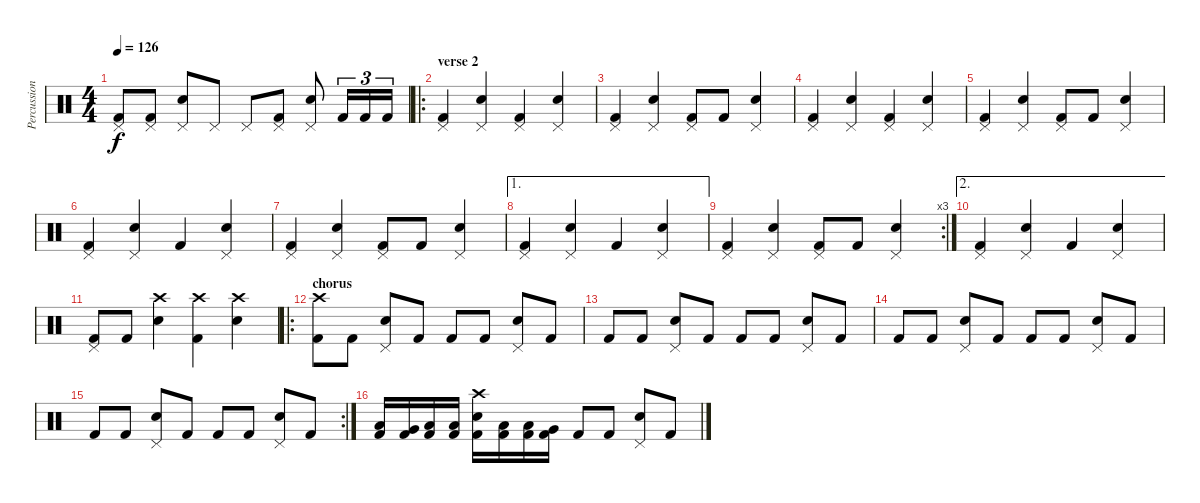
\track ("Percussion" "Percussion") {instrument percussion}
\staff {score}
\articulation defaults
\ts (4 4)
\tempo 126
\clef neutral
\ks c
("Pedal Hi-Hat (hit)" "Kick (hit) 2").8{dy f} ("Pedal Hi-Hat (hit)" "Kick (hit) 2").8 ("Pedal Hi-Hat (hit)" "Electric Snare (hit)").8 "Pedal Hi-Hat (hit)".8 "Pedal Hi-Hat (hit)".8 ("Pedal Hi-Hat (hit)" "Kick (hit) 2").8 ("Pedal Hi-Hat (hit)" "Electric Snare (hit)").8 "Kick (hit) 2".16{tu (3 2)} "Kick (hit) 2".16{tu (3 2)} "Kick (hit) 2".16{tu (3 2)} |
\ro
\section ("" "verse 2")
("Pedal Hi-Hat (hit)" "Kick (hit) 2").4 ("Pedal Hi-Hat (hit)" "Electric Snare (hit)").4 ("Pedal Hi-Hat (hit)" "Kick (hit) 2").4 ("Pedal Hi-Hat (hit)" "Electric Snare (hit)").4 |
("Pedal Hi-Hat (hit)" "Kick (hit) 2").4 ("Pedal Hi-Hat (hit)" "Electric Snare (hit)").4 ("Pedal Hi-Hat (hit)" "Kick (hit) 2").8 "Kick (hit) 2".8 ("Pedal Hi-Hat (hit)" "Electric Snare (hit)").4 |
("Pedal Hi-Hat (hit)" "Kick (hit) 2").4 ("Pedal Hi-Hat (hit)" "Electric Snare (hit)").4 ("Pedal Hi-Hat (hit)" "Kick (hit) 2").4 ("Pedal Hi-Hat (hit)" "Electric Snare (hit)").4 |
("Pedal Hi-Hat (hit)" "Kick (hit) 2").4 ("Pedal Hi-Hat (hit)" "Electric Snare (hit)").4 ("Pedal Hi-Hat (hit)" "Kick (hit) 2").8 "Kick (hit) 2".8 ("Pedal Hi-Hat (hit)" "Electric Snare (hit)").4 |
("Pedal Hi-Hat (hit)" "Kick (hit) 2").4 ("Pedal Hi-Hat (hit)" "Electric Snare (hit)").4 "Kick (hit) 2".4 ("Pedal Hi-Hat (hit)" "Electric Snare (hit)").4 |
("Pedal Hi-Hat (hit)" "Kick (hit) 2").4 ("Pedal Hi-Hat (hit)" "Electric Snare (hit)").4 ("Pedal Hi-Hat (hit)" "Kick (hit) 2").8 "Kick (hit) 2".8 ("Pedal Hi-Hat (hit)" "Electric Snare (hit)").4 |
\ae 1
("Pedal Hi-Hat (hit)" "Kick (hit) 2").4 ("Pedal Hi-Hat (hit)" "Electric Snare (hit)").4 "Kick (hit) 2".4 ("Pedal Hi-Hat (hit)" "Electric Snare (hit)").4 |
\rc 3
("Pedal Hi-Hat (hit)" "Kick (hit) 2").4 ("Pedal Hi-Hat (hit)" "Electric Snare (hit)").4 ("Pedal Hi-Hat (hit)" "Kick (hit) 2").8 "Kick (hit) 2".8 ("Pedal Hi-Hat (hit)" "Electric Snare (hit)").4 |
\ae 2
("Pedal Hi-Hat (hit)" "Kick (hit) 2").4 ("Pedal Hi-Hat (hit)" "Electric Snare (hit)").4 "Kick (hit) 2".4 ("Pedal Hi-Hat (hit)" "Electric Snare (hit)").4 |
("Pedal Hi-Hat (hit)" "Kick (hit) 2").8 "Kick (hit) 2".8 ("Crash high (hit)" "Electric Snare (hit)").4 ("Crash high (hit)" "Kick (hit) 2").4 ("Crash high (hit)" "Electric Snare (hit)").4 |
\ro
\section ("" "chorus")
("Crash high (hit)" "Kick (hit) 2").8 "Kick (hit) 2".8 ("Pedal Hi-Hat (hit)" "Electric Snare (hit)").8 "Kick (hit) 2".8 "Kick (hit) 2".8 "Kick (hit) 2".8 ("Pedal Hi-Hat (hit)" "Electric Snare (hit)").8 "Kick (hit) 2".8 |
"Kick (hit) 2".8 "Kick (hit) 2".8 ("Pedal Hi-Hat (hit)" "Electric Snare (hit)").8 "Kick (hit) 2".8 "Kick (hit) 2".8 "Kick (hit) 2".8 ("Pedal Hi-Hat (hit)" "Electric Snare (hit)").8 "Kick (hit) 2".8 |
"Kick (hit) 2".8 "Kick (hit) 2".8 ("Pedal Hi-Hat (hit)" "Electric Snare (hit)").8 "Kick (hit) 2".8 "Kick (hit) 2".8 "Kick (hit) 2".8 ("Pedal Hi-Hat (hit)" "Electric Snare (hit)").8 "Kick (hit) 2".8 |
\rc 2 "Kick (hit) 2".8 "Kick (hit) 2".8
("Pedal Hi-Hat (hit)" "Electric Snare (hit)").8 "Kick (hit) 2".8 "Kick (hit) 2".8 "Kick (hit) 2".8 ("Pedal Hi-Hat (hit)" "Electric Snare (hit)").8 "Kick (hit) 2".8 |
("Low Tom (hit)" "Kick (hit) 2").16 ("Very Low Tom (hit)" "Kick (hit) 2").16 ("Low Floor Tom (hit)" "Kick (hit) 2").16 ("Low Tom (hit)" "Kick (hit) 2").16 ("Crash high (hit)" "Electric Snare (hit)" "Kick (hit) 2").16 ("Low Floor Tom (hit)" "Kick (hit) 2").16 ("Low Tom (hit)" "Kick (hit) 2").16 ("Very Low Tom (hit)" "Kick (hit) 2").16 "Kick (hit) 2".8 "Kick (hit) 2".8 ("Pedal Hi-Hat (hit)" "Electric Snare (hit)").8 "Kick (hit) 2".8
